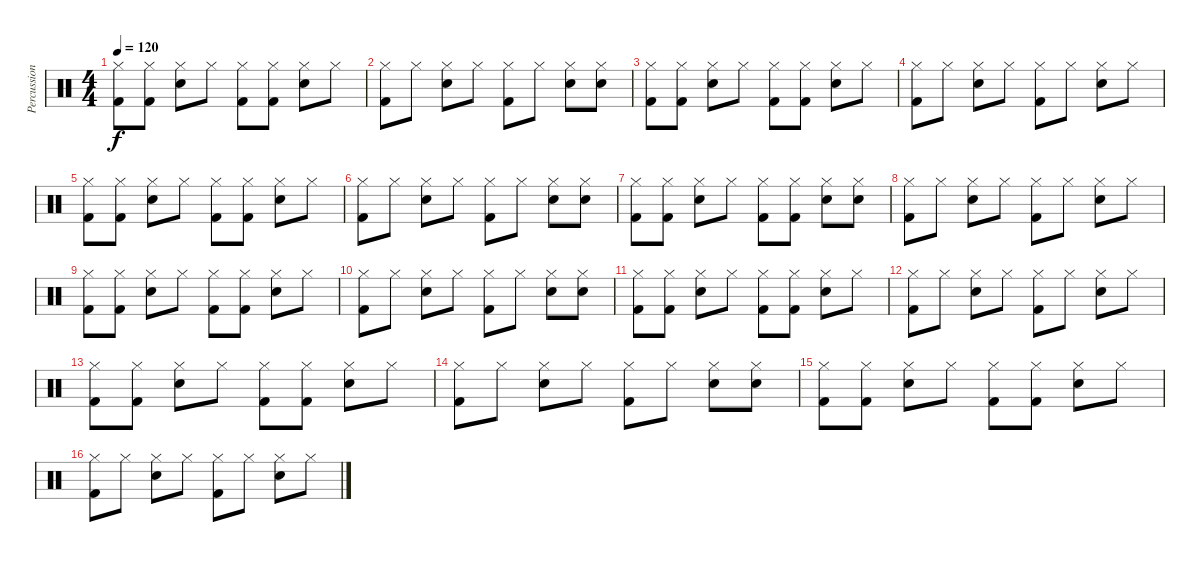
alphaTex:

\track ("Percussion" "Percussion") {instrument percussion}
\staff {score}
\articulation defaults
\ts (4 4)
\tempo 120
\clef neutral
\ks c
("Hi-Hat (closed)" "Kick (hit) 2").8{dy f} ("Hi-Hat (closed)" "Kick (hit) 2").8 ("Hi-Hat (closed)" "Electric Snare (hit)").8 "Hi-Hat (closed)".8 ("Hi-Hat (closed)" "Kick (hit) 2").8 ("Hi-Hat (closed)" "Kick (hit) 2").8 ("Hi-Hat (closed)" "Electric Snare (hit)").8 "Hi-Hat (closed)".8 |
("Hi-Hat (closed)" "Kick (hit) 2").8 "Hi-Hat (closed)".8 ("Hi-Hat (closed)" "Electric Snare (hit)").8 "Hi-Hat (closed)".8 ("Hi-Hat (closed)" "Kick (hit) 2").8 "Hi-Hat (closed)".8 ("Hi-Hat (closed)" "Electric Snare (hit)").8 ("Hi-Hat (closed)" "Electric Snare (hit)").8 |
("Hi-Hat (closed)" "Kick (hit) 2").8 ("Hi-Hat (closed)" "Kick (hit) 2").8 ("Hi-Hat (closed)" "Electric Snare (hit)").8 "Hi-Hat (closed)".8 ("Hi-Hat (closed)" "Kick (hit) 2").8 ("Hi-Hat (closed)" "Kick (hit) 2").8 ("Hi-Hat (closed)" "Electric Snare (hit)").8 "Hi-Hat (closed)".8 |
("Hi-Hat (closed)" "Kick (hit) 2").8 "Hi-Hat (closed)".8 ("Hi-Hat (closed)" "Electric Snare (hit)").8 "Hi-Hat (closed)".8 ("Hi-Hat (closed)" "Kick (hit) 2").8 "Hi-Hat (closed)".8 ("Hi-Hat (closed)" "Electric Snare (hit)").8 "Hi-Hat (closed)".8 |
("Hi-Hat (closed)" "Kick (hit) 2").8 ("Hi-Hat (closed)" "Kick (hit) 2").8 ("Hi-Hat (closed)" "Electric Snare (hit)").8 "Hi-Hat (closed)".8 ("Hi-Hat (closed)" "Kick (hit) 2").8 ("Hi-Hat (closed)" "Kick (hit) 2").8 ("Hi-Hat (closed)" "Electric Snare (hit)").8 "Hi-Hat (closed)".8 |
("Hi-Hat (closed)" "Kick (hit) 2").8 "Hi-Hat (closed)".8 ("Hi-Hat (closed)" "Electric Snare (hit)").8 "Hi-Hat (closed)".8 ("Hi-Hat (closed)" "Kick (hit) 2").8 "Hi-Hat (closed)".8 ("Hi-Hat (closed)" "Electric Snare (hit)").8 ("Hi-Hat (closed)" "Electric Snare (hit)").8 |
("Hi-Hat (closed)" "Kick (hit) 2").8 ("Hi-Hat (closed)" "Kick (hit) 2").8 ("Hi-Hat (closed)" "Electric Snare (hit)").8 "Hi-Hat (closed)".8 ("Hi-Hat (closed)" "Kick (hit) 2").8 ("Hi-Hat (closed)" "Kick (hit) 2").8 ("Hi-Hat (closed)" "Electric Snare (hit)").8 ("Hi-Hat (closed)" "Electric Snare (hit)").8 |
("Hi-Hat (closed)" "Kick (hit) 2").8 "Hi-Hat (closed)".8 ("Hi-Hat (closed)" "Electric Snare (hit)").8 "Hi-Hat (closed)".8 ("Hi-Hat (closed)" "Kick (hit) 2").8 "Hi-Hat (closed)".8 ("Hi-Hat (closed)" "Electric Snare (hit)").8 "Hi-Hat (closed)".8 |
("Hi-Hat (closed)" "Kick (hit) 2").8 ("Hi-Hat (closed)" "Kick (hit) 2").8 ("Hi-Hat (closed)" "Electric Snare (hit)").8 "Hi-Hat (closed)".8 ("Hi-Hat (closed)" "Kick (hit) 2").8 ("Hi-Hat (closed)" "Kick (hit) 2").8 ("Hi-Hat (closed)" "Electric Snare (hit)").8 "Hi-Hat (closed)".8 |
("Hi-Hat (closed)" "Kick (hit) 2").8 "Hi-Hat (closed)".8 ("Hi-Hat (closed)" "Electric Snare (hit)").8 "Hi-Hat (closed)".8 ("Hi-Hat (closed)" "Kick (hit) 2").8 "Hi-Hat (closed)".8 ("Hi-Hat (closed)" "Electric Snare (hit)").8 ("Hi-Hat (closed)" "Electric Snare (hit)").8 |
("Hi-Hat (closed)" "Kick (hit) 2").8 ("Hi-Hat (closed)" "Kick (hit) 2").8 ("Hi-Hat (closed)" "Electric Snare (hit)").8 "Hi-Hat (closed)".8 ("Hi-Hat (closed)" "Kick (hit) 2").8 ("Hi-Hat (closed)" "Kick (hit) 2").8 ("Hi-Hat (closed)" "Electric Snare (hit)").8 "Hi-Hat (closed)".8 |
("Hi-Hat (closed)" "Kick (hit) 2").8 "Hi-Hat (closed)".8 ("Hi-Hat (closed)" "Electric Snare (hit)").8 "Hi-Hat (closed)".8 ("Hi-Hat (closed)" "Kick (hit) 2").8 "Hi-Hat (closed)".8 ("Hi-Hat (closed)" "Electric Snare (hit)").8 "Hi-Hat (closed)".8 |
("Hi-Hat (closed)" "Kick (hit) 2").8 ("Hi-Hat (closed)" "Kick (hit) 2").8 ("Hi-Hat (closed)" "Electric Snare (hit)").8 "Hi-Hat (closed)".8 ("Hi-Hat (closed)" "Kick (hit) 2").8 ("Hi-Hat (closed)" "Kick (hit) 2").8 ("Hi-Hat (closed)" "Electric Snare (hit)").8 "Hi-Hat (closed)".8 |
("Hi-Hat (closed)" "Kick (hit) 2").8 "Hi-Hat (closed)".8 ("Hi-Hat (closed)" "Electric Snare (hit)").8 "Hi-Hat (closed)".8 ("Hi-Hat (closed)" "Kick (hit) 2").8 "Hi-Hat (closed)".8 ("Hi-Hat (closed)" "Electric Snare (hit)").8 ("Hi-Hat (closed)" "Electric Snare (hit)").8 |
("Hi-Hat (closed)" "Kick (hit) 2").8 ("Hi-Hat (closed)" "Kick (hit) 2").8 ("Hi-Hat (closed)" "Electric Snare (hit)").8 "Hi-Hat (closed)".8 ("Hi-Hat (closed)" "Kick (hit) 2").8 ("Hi-Hat (closed)" "Kick (hit) 2").8 ("Hi-Hat (closed)" "Electric Snare (hit)").8 "Hi-Hat (closed)".8 |
("Hi-Hat (closed)" "Kick (hit) 2").8 "Hi-Hat (closed)".8 ("Hi-Hat (closed)" "Electric Snare (hit)").8 "Hi-Hat (closed)".8 ("Hi-Hat (closed)" "Kick (hit) 2").8 "Hi-Hat (closed)".8 ("Hi-Hat (closed)" "Electric Snare (hit)").8 "Hi-Hat (closed)".8
